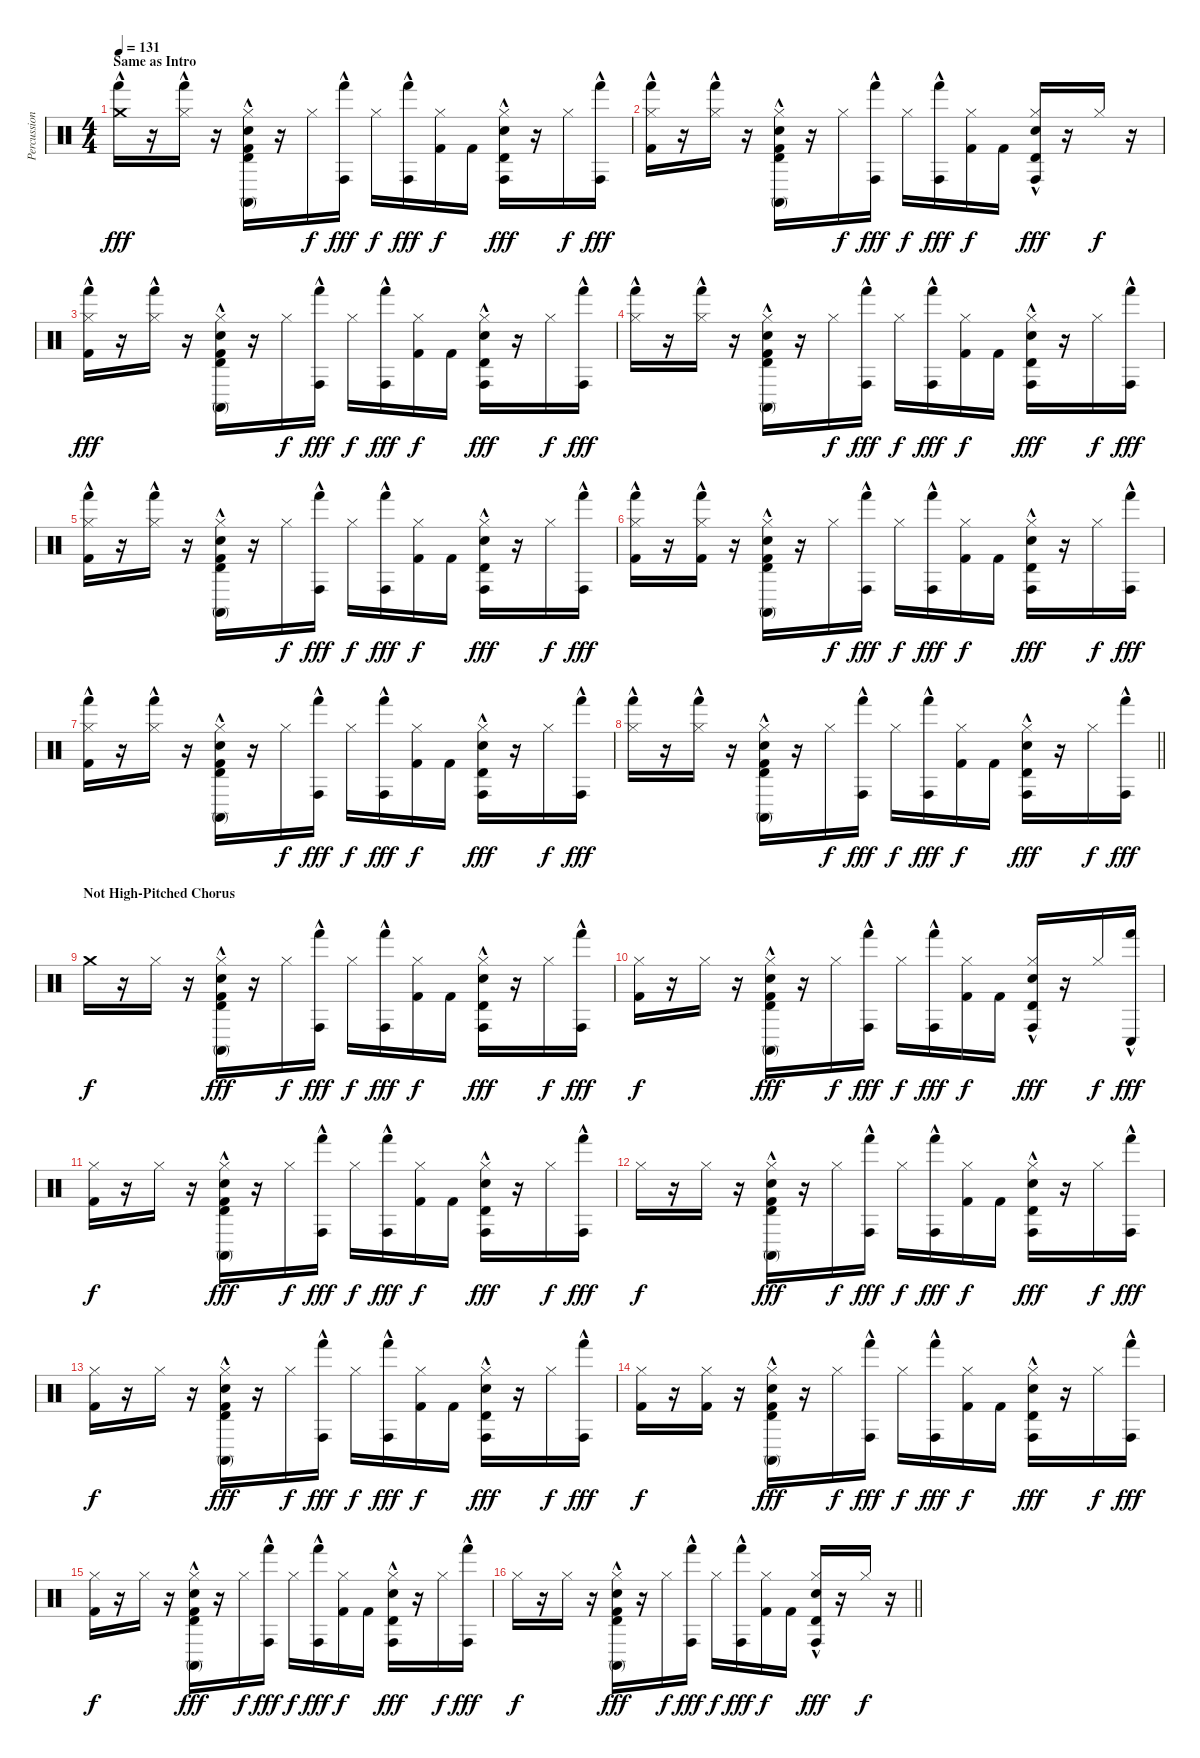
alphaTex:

\track ("Percussion" "Percussion") {instrument percussion}
\staff {score}
\articulation defaults
\ts (4 4)
\section ("" "Same as Intro")
\tempo 131
\clef neutral
\ks c
("Crash medium (hit)" "Hand (hit)"{hac}).16{dy fff} r.16 ("Hi-Hat (closed)" "Hand (hit)"{hac}).16 r.16 ("Hi-Hat (closed)" "Conga high (mute)"{hac} "Timbale high (hit)" "Electric Snare (hit)" "Kick (hit) 2").16 r.16 "Hi-Hat (closed)".16{dy f} ("Conga high (hit)"{hac} "Hand (hit)"{hac}).16{dy fff} "Hi-Hat (closed)".16{dy f} ("Conga high (hit)"{hac} "Hand (hit)"{hac}).16{dy fff} ("Hi-Hat (closed)" "Kick (hit) 2").16{dy f} "Kick (hit) 2".16 ("Hi-Hat (closed)" "Conga high (hit)"{hac} "Timbale high (hit)" "Electric Snare (hit)").16{dy fff} r.16 "Hi-Hat (closed)".16{dy f} ("Conga high (hit)"{hac} "Hand (hit)"{hac}).16{dy fff} |
("Hi-Hat (closed)" "Hand (hit)"{hac} "Kick (hit) 2").16 r.16 ("Hi-Hat (closed)" "Hand (hit)"{hac}).16 r.16 ("Hi-Hat (closed)" "Conga high (mute)"{hac} "Timbale high (hit)" "Electric Snare (hit)" "Kick (hit) 2").16 r.16 "Hi-Hat (closed)".16{dy f} ("Conga high (hit)"{hac} "Hand (hit)"{hac}).16{dy fff} "Hi-Hat (closed)".16{dy f} ("Conga high (hit)"{hac} "Hand (hit)"{hac}).16{dy fff} ("Hi-Hat (closed)" "Kick (hit) 2").16{dy f} "Kick (hit) 2".16 ("Hi-Hat (closed)" "Conga high (hit)"{hac} "Timbale high (hit)" "Electric Snare (hit)").16{dy fff} r.16 "Hi-Hat (closed)".16{dy f} r.16 |
("Hi-Hat (closed)" "Hand (hit)"{hac} "Kick (hit) 2").16{dy fff} r.16 ("Hi-Hat (closed)" "Hand (hit)"{hac}).16 r.16 ("Hi-Hat (closed)" "Conga high (mute)"{hac} "Timbale high (hit)" "Electric Snare (hit)" "Kick (hit) 2").16 r.16 "Hi-Hat (closed)".16{dy f} ("Conga high (hit)"{hac} "Hand (hit)"{hac}).16{dy fff} "Hi-Hat (closed)".16{dy f} ("Conga high (hit)"{hac} "Hand (hit)"{hac}).16{dy fff} ("Hi-Hat (closed)" "Kick (hit) 2").16{dy f} "Kick (hit) 2".16 ("Hi-Hat (closed)" "Conga high (hit)"{hac} "Timbale high (hit)" "Electric Snare (hit)").16{dy fff} r.16 "Hi-Hat (closed)".16{dy f} ("Conga high (hit)"{hac} "Hand (hit)"{hac}).16{dy fff} |
("Hi-Hat (closed)" "Hand (hit)"{hac}).16 r.16 ("Hi-Hat (closed)" "Hand (hit)"{hac}).16 r.16 ("Hi-Hat (closed)" "Conga high (mute)"{hac} "Timbale high (hit)" "Electric Snare (hit)" "Kick (hit) 2").16 r.16 "Hi-Hat (closed)".16{dy f} ("Conga high (hit)"{hac} "Hand (hit)"{hac}).16{dy fff} "Hi-Hat (closed)".16{dy f} ("Conga high (hit)"{hac} "Hand (hit)"{hac}).16{dy fff} ("Hi-Hat (closed)" "Kick (hit) 2").16{dy f} "Kick (hit) 2".16 ("Hi-Hat (closed)" "Conga high (hit)"{hac} "Timbale high (hit)" "Electric Snare (hit)").16{dy fff} r.16 "Hi-Hat (closed)".16{dy f} ("Conga high (hit)"{hac} "Hand (hit)"{hac}).16{dy fff} |
("Hi-Hat (closed)" "Hand (hit)"{hac} "Kick (hit) 2").16 r.16 ("Hi-Hat (closed)" "Hand (hit)"{hac}).16 r.16 ("Hi-Hat (closed)" "Conga high (mute)"{hac} "Timbale high (hit)" "Electric Snare (hit)" "Kick (hit) 2").16 r.16 "Hi-Hat (closed)".16{dy f} ("Conga high (hit)"{hac} "Hand (hit)"{hac}).16{dy fff} "Hi-Hat (closed)".16{dy f} ("Conga high (hit)"{hac} "Hand (hit)"{hac}).16{dy fff} ("Hi-Hat (closed)" "Kick (hit) 2").16{dy f} "Kick (hit) 2".16 ("Hi-Hat (closed)" "Conga high (hit)"{hac} "Timbale high (hit)" "Electric Snare (hit)").16{dy fff} r.16 "Hi-Hat (closed)".16{dy f} ("Conga high (hit)"{hac} "Hand (hit)"{hac}).16{dy fff} |
("Hi-Hat (closed)" "Hand (hit)"{hac} "Kick (hit) 2").16 r.16 ("Hi-Hat (closed)" "Hand (hit)"{hac} "Kick (hit) 2").16 r.16 ("Hi-Hat (closed)" "Conga high (mute)"{hac} "Timbale high (hit)" "Electric Snare (hit)" "Kick (hit) 2").16 r.16 "Hi-Hat (closed)".16{dy f} ("Conga high (hit)"{hac} "Hand (hit)"{hac}).16{dy fff} "Hi-Hat (closed)".16{dy f} ("Conga high (hit)"{hac} "Hand (hit)"{hac}).16{dy fff} ("Hi-Hat (closed)" "Kick (hit) 2").16{dy f} "Kick (hit) 2".16 ("Hi-Hat (closed)" "Conga high (hit)"{hac} "Timbale high (hit)" "Electric Snare (hit)").16{dy fff} r.16 "Hi-Hat (closed)".16{dy f} ("Conga high (hit)"{hac} "Hand (hit)"{hac}).16{dy fff} |
("Hi-Hat (closed)" "Hand (hit)"{hac} "Kick (hit) 2").16 r.16 ("Hi-Hat (closed)" "Hand (hit)"{hac}).16 r.16 ("Hi-Hat (closed)" "Conga high (mute)"{hac} "Timbale high (hit)" "Electric Snare (hit)" "Kick (hit) 2").16 r.16 "Hi-Hat (closed)".16{dy f} ("Conga high (hit)"{hac} "Hand (hit)"{hac}).16{dy fff} "Hi-Hat (closed)".16{dy f} ("Conga high (hit)"{hac} "Hand (hit)"{hac}).16{dy fff} ("Hi-Hat (closed)" "Kick (hit) 2").16{dy f} "Kick (hit) 2".16 ("Hi-Hat (closed)" "Conga high (hit)"{hac} "Timbale high (hit)" "Electric Snare (hit)").16{dy fff} r.16 "Hi-Hat (closed)".16{dy f} ("Conga high (hit)"{hac} "Hand (hit)"{hac}).16{dy fff} |
\barLineRight lightlight
("Hi-Hat (closed)" "Hand (hit)"{hac}).16 r.16 ("Hi-Hat (closed)" "Hand (hit)"{hac}).16 r.16 ("Hi-Hat (closed)" "Conga high (mute)"{hac} "Timbale high (hit)" "Electric Snare (hit)" "Kick (hit) 2").16 r.16 "Hi-Hat (closed)".16{dy f} ("Conga high (hit)"{hac} "Hand (hit)"{hac}).16{dy fff} "Hi-Hat (closed)".16{dy f} ("Conga high (hit)"{hac} "Hand (hit)"{hac}).16{dy fff} ("Hi-Hat (closed)" "Kick (hit) 2").16{dy f} "Kick (hit) 2".16 ("Hi-Hat (closed)" "Conga high (hit)"{hac} "Timbale high (hit)" "Electric Snare (hit)").16{dy fff} r.16 "Hi-Hat (closed)".16{dy f} ("Conga high (hit)"{hac} "Hand (hit)"{hac}).16{dy fff} |
\section ("" "Not High-Pitched Chorus")
"Crash medium (hit)".16{dy f} r.16 "Hi-Hat (closed)".16 r.16 ("Hi-Hat (closed)" "Conga high (mute)"{hac} "Timbale high (hit)" "Electric Snare (hit)" "Kick (hit) 2").16{dy fff} r.16 "Hi-Hat (closed)".16{dy f} ("Conga high (hit)"{hac} "Hand (hit)"{hac}).16{dy fff} "Hi-Hat (closed)".16{dy f} ("Conga high (hit)"{hac} "Hand (hit)"{hac}).16{dy fff} ("Hi-Hat (closed)" "Kick (hit) 2").16{dy f} "Kick (hit) 2".16 ("Hi-Hat (closed)" "Conga high (hit)"{hac} "Timbale high (hit)" "Electric Snare (hit)").16{dy fff} r.16 "Hi-Hat (closed)".16{dy f} ("Conga high (hit)"{hac} "Hand (hit)"{hac}).16{dy fff} |
("Hi-Hat (closed)" "Kick (hit) 2").16{dy f} r.16 "Hi-Hat (closed)".16 r.16 ("Hi-Hat (closed)" "Conga high (mute)"{hac} "Timbale high (hit)" "Electric Snare (hit)" "Kick (hit) 2").16{dy fff} r.16 "Hi-Hat (closed)".16{dy f} ("Conga high (hit)"{hac} "Hand (hit)"{hac}).16{dy fff} "Hi-Hat (closed)".16{dy f} ("Conga high (hit)"{hac} "Hand (hit)"{hac}).16{dy fff} ("Hi-Hat (closed)" "Kick (hit) 2").16{dy f} "Kick (hit) 2".16 ("Hi-Hat (closed)" "Conga high (hit)"{hac} "Timbale high (hit)" "Electric Snare (hit)").16{dy fff} r.16 "Hi-Hat (closed)".16{dy f} ("Conga low (hit)"{hac} "Hand (hit)"{hac}).16{dy fff} |
("Hi-Hat (closed)" "Kick (hit) 2").16{dy f} r.16 "Hi-Hat (closed)".16 r.16 ("Hi-Hat (closed)" "Conga high (mute)"{hac} "Timbale high (hit)" "Electric Snare (hit)" "Kick (hit) 2").16{dy fff} r.16 "Hi-Hat (closed)".16{dy f} ("Conga high (hit)"{hac} "Hand (hit)"{hac}).16{dy fff} "Hi-Hat (closed)".16{dy f} ("Conga high (hit)"{hac} "Hand (hit)"{hac}).16{dy fff} ("Hi-Hat (closed)" "Kick (hit) 2").16{dy f} "Kick (hit) 2".16 ("Hi-Hat (closed)" "Conga high (hit)"{hac} "Timbale high (hit)" "Electric Snare (hit)").16{dy fff} r.16 "Hi-Hat (closed)".16{dy f} ("Conga high (hit)"{hac} "Hand (hit)"{hac}).16{dy fff} |
"Hi-Hat (closed)".16{dy f} r.16 "Hi-Hat (closed)".16 r.16 ("Hi-Hat (closed)" "Conga high (mute)"{hac} "Timbale high (hit)" "Electric Snare (hit)" "Kick (hit) 2").16{dy fff} r.16 "Hi-Hat (closed)".16{dy f} ("Conga high (hit)"{hac} "Hand (hit)"{hac}).16{dy fff} "Hi-Hat (closed)".16{dy f} ("Conga high (hit)"{hac} "Hand (hit)"{hac}).16{dy fff} ("Hi-Hat (closed)" "Kick (hit) 2").16{dy f} "Kick (hit) 2".16 ("Hi-Hat (closed)" "Conga high (hit)"{hac} "Timbale high (hit)" "Electric Snare (hit)").16{dy fff} r.16 "Hi-Hat (closed)".16{dy f} ("Conga high (hit)"{hac} "Hand (hit)"{hac}).16{dy fff} |
("Hi-Hat (closed)" "Kick (hit) 2").16{dy f} r.16 "Hi-Hat (closed)".16 r.16 ("Hi-Hat (closed)" "Conga high (mute)"{hac} "Timbale high (hit)" "Electric Snare (hit)" "Kick (hit) 2").16{dy fff} r.16 "Hi-Hat (closed)".16{dy f} ("Conga high (hit)"{hac} "Hand (hit)"{hac}).16{dy fff} "Hi-Hat (closed)".16{dy f} ("Conga high (hit)"{hac} "Hand (hit)"{hac}).16{dy fff} ("Hi-Hat (closed)" "Kick (hit) 2").16{dy f} "Kick (hit) 2".16 ("Hi-Hat (closed)" "Conga high (hit)"{hac} "Timbale high (hit)" "Electric Snare (hit)").16{dy fff} r.16 "Hi-Hat (closed)".16{dy f} ("Conga high (hit)"{hac} "Hand (hit)"{hac}).16{dy fff} |
("Hi-Hat (closed)" "Kick (hit) 2").16{dy f} r.16 ("Hi-Hat (closed)" "Kick (hit) 2").16 r.16 ("Hi-Hat (closed)" "Conga high (mute)"{hac} "Timbale high (hit)" "Electric Snare (hit)" "Kick (hit) 2").16{dy fff} r.16 "Hi-Hat (closed)".16{dy f} ("Conga high (hit)"{hac} "Hand (hit)"{hac}).16{dy fff} "Hi-Hat (closed)".16{dy f} ("Conga high (hit)"{hac} "Hand (hit)"{hac}).16{dy fff} ("Hi-Hat (closed)" "Kick (hit) 2").16{dy f} "Kick (hit) 2".16 ("Hi-Hat (closed)" "Conga high (hit)"{hac} "Timbale high (hit)" "Electric Snare (hit)").16{dy fff} r.16 "Hi-Hat (closed)".16{dy f} ("Conga high (hit)"{hac} "Hand (hit)"{hac}).16{dy fff} |
("Hi-Hat (closed)" "Kick (hit) 2").16{dy f} r.16 "Hi-Hat (closed)".16 r.16 ("Hi-Hat (closed)" "Conga high (mute)"{hac} "Timbale high (hit)" "Electric Snare (hit)" "Kick (hit) 2").16{dy fff} r.16 "Hi-Hat (closed)".16{dy f} ("Conga high (hit)"{hac} "Hand (hit)"{hac}).16{dy fff} "Hi-Hat (closed)".16{dy f} ("Conga high (hit)"{hac} "Hand (hit)"{hac}).16{dy fff} ("Hi-Hat (closed)" "Kick (hit) 2").16{dy f} "Kick (hit) 2".16 ("Hi-Hat (closed)" "Conga high (hit)"{hac} "Timbale high (hit)" "Electric Snare (hit)").16{dy fff} r.16 "Hi-Hat (closed)".16{dy f} ("Conga high (hit)"{hac} "Hand (hit)"{hac}).16{dy fff} |
\barLineRight lightlight "Hi-Hat (closed)".16{dy f}
r.16 "Hi-Hat (closed)".16 r.16 ("Hi-Hat (closed)" "Conga high (mute)"{hac} "Timbale high (hit)" "Electric Snare (hit)" "Kick (hit) 2").16{dy fff} r.16 "Hi-Hat (closed)".16{dy f} ("Conga high (hit)"{hac} "Hand (hit)"{hac}).16{dy fff} "Hi-Hat (closed)".16{dy f} ("Conga high (hit)"{hac} "Hand (hit)"{hac}).16{dy fff} ("Hi-Hat (closed)" "Kick (hit) 2").16{dy f} "Kick (hit) 2".16 ("Hi-Hat (closed)" "Conga high (hit)"{hac} "Timbale high (hit)" "Electric Snare (hit)").16{dy fff} r.16 "Hi-Hat (closed)".16{dy f} r.16
